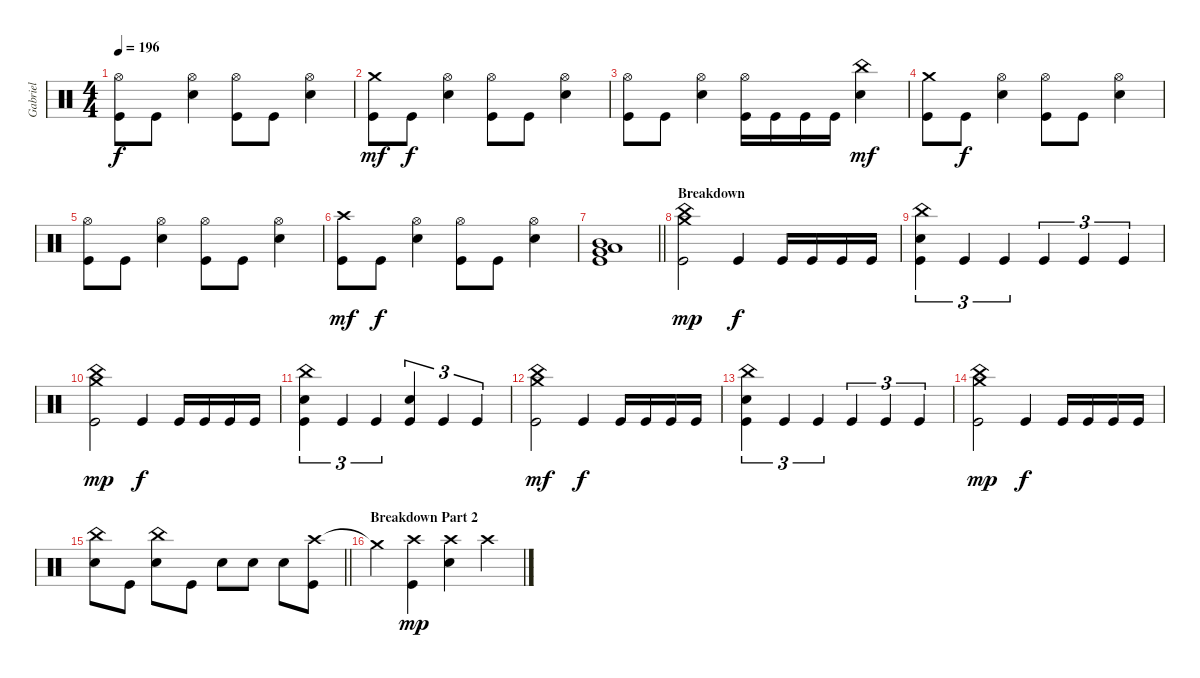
\track ("Gabriel" "Gabriel") {instrument percussion}
\staff {score}
\articulation defaults
\ts (4 4)
\tempo 196
\clef neutral
\ks aminor
("Hi-Hat (open)" "Kick (hit)").8{dy f} "Kick (hit)".8 ("Hi-Hat (open)" "Snare (hit) 2").4 ("Hi-Hat (open)" "Kick (hit)").8 "Kick (hit)".8 ("Hi-Hat (open)" "Snare (hit) 2").4 |
("Crash medium (hit)" "Kick (hit)").8{dy mf} "Kick (hit)".8{dy f} ("Hi-Hat (open)" "Snare (hit) 2").4 ("Hi-Hat (open)" "Kick (hit)").8 "Kick (hit)".8 ("Hi-Hat (open)" "Snare (hit) 2").4 |
("Hi-Hat (open)" "Kick (hit)").8 "Kick (hit)".8 ("Hi-Hat (open)" "Snare (hit) 2").4 ("Hi-Hat (open)" "Kick (hit)").16 "Kick (hit)".16 "Kick (hit)".16 "Kick (hit)".16 ("China (hit)" "Snare (hit) 2").4{dy mf} |
("Crash medium (hit)" "Kick (hit)").8 "Kick (hit)".8{dy f} ("Hi-Hat (open)" "Snare (hit) 2").4 ("Hi-Hat (open)" "Kick (hit)").8 "Kick (hit)".8 ("Hi-Hat (open)" "Snare (hit) 2").4 |
("Hi-Hat (open)" "Kick (hit)").8 "Kick (hit)".8 ("Hi-Hat (open)" "Snare (hit) 2").4 ("Hi-Hat (open)" "Kick (hit)").8 "Kick (hit)".8 ("Hi-Hat (open)" "Snare (hit) 2").4 |
("Crash high (hit)" "Kick (hit)").8{dy mf} "Kick (hit)".8{dy f} ("Hi-Hat (open)" "Snare (hit) 2").4 ("Hi-Hat (open)" "Kick (hit)").8 "Kick (hit)".8 ("Hi-Hat (open)" "Snare (hit) 2").4 |
\barLineRight lightlight
("Mid Tom (hit)" "Very Low Tom (hit)" "Low Tom (hit)" "Kick (hit)").1 |
\section ("" "Breakdown")
("China (hit)" "Crash medium (hit)" "Kick (hit)").2{dy mp} "Kick (hit)".4{dy f} "Kick (hit)".16 "Kick (hit)".16 "Kick (hit)".16 "Kick (hit)".16 |
("China (hit)" "Snare (hit) 2" "Kick (hit)").4{tu (3 2)} "Kick (hit)".4{tu (3 2)} "Kick (hit)".4{tu (3 2)} "Kick (hit)".4{tu (3 2)} "Kick (hit)".4{tu (3 2)} "Kick (hit)".4{tu (3 2)} |
("China (hit)" "Crash medium (hit)" "Kick (hit)").2{dy mp} "Kick (hit)".4{dy f} "Kick (hit)".16 "Kick (hit)".16 "Kick (hit)".16 "Kick (hit)".16 |
("China (hit)" "Snare (hit) 2" "Kick (hit)").4{tu (3 2)} "Kick (hit)".4{tu (3 2)} "Kick (hit)".4{tu (3 2)} ("Snare (hit) 2" "Kick (hit)").4{tu (3 2)} "Kick (hit)".4{tu (3 2)} "Kick (hit)".4{tu (3 2)} |
("China (hit)" "Crash medium (hit)" "Kick (hit)").2{dy mf} "Kick (hit)".4{dy f} "Kick (hit)".16 "Kick (hit)".16 "Kick (hit)".16 "Kick (hit)".16 |
("China (hit)" "Snare (hit) 2" "Kick (hit)").4{tu (3 2)} "Kick (hit)".4{tu (3 2)} "Kick (hit)".4{tu (3 2)} "Kick (hit)".4{tu (3 2)} "Kick (hit)".4{tu (3 2)} "Kick (hit)".4{tu (3 2)} |
("China (hit)" "Crash medium (hit)" "Kick (hit)").2{dy mp} "Kick (hit)".4{dy f} "Kick (hit)".16 "Kick (hit)".16 "Kick (hit)".16 "Kick (hit)".16 |
\barLineRight lightlight
("China (hit)" "Snare (hit) 2").8 "Kick (hit)".8 ("China (hit)" "Snare (hit) 2").8 "Kick (hit)".8 "Snare (hit) 2".8 "Snare (hit) 2".8 "Snare (hit) 2".8 ("Crash high (hit)" "Kick (hit)").8 |
\section ("" "Breakdown Part 2")
"Crash medium (hit)"{t}.4 ("Crash high (hit)" "Kick (hit)").4{dy mp} ("Crash high (hit)" "Snare (hit) 2").4 "Crash high (hit)".4
